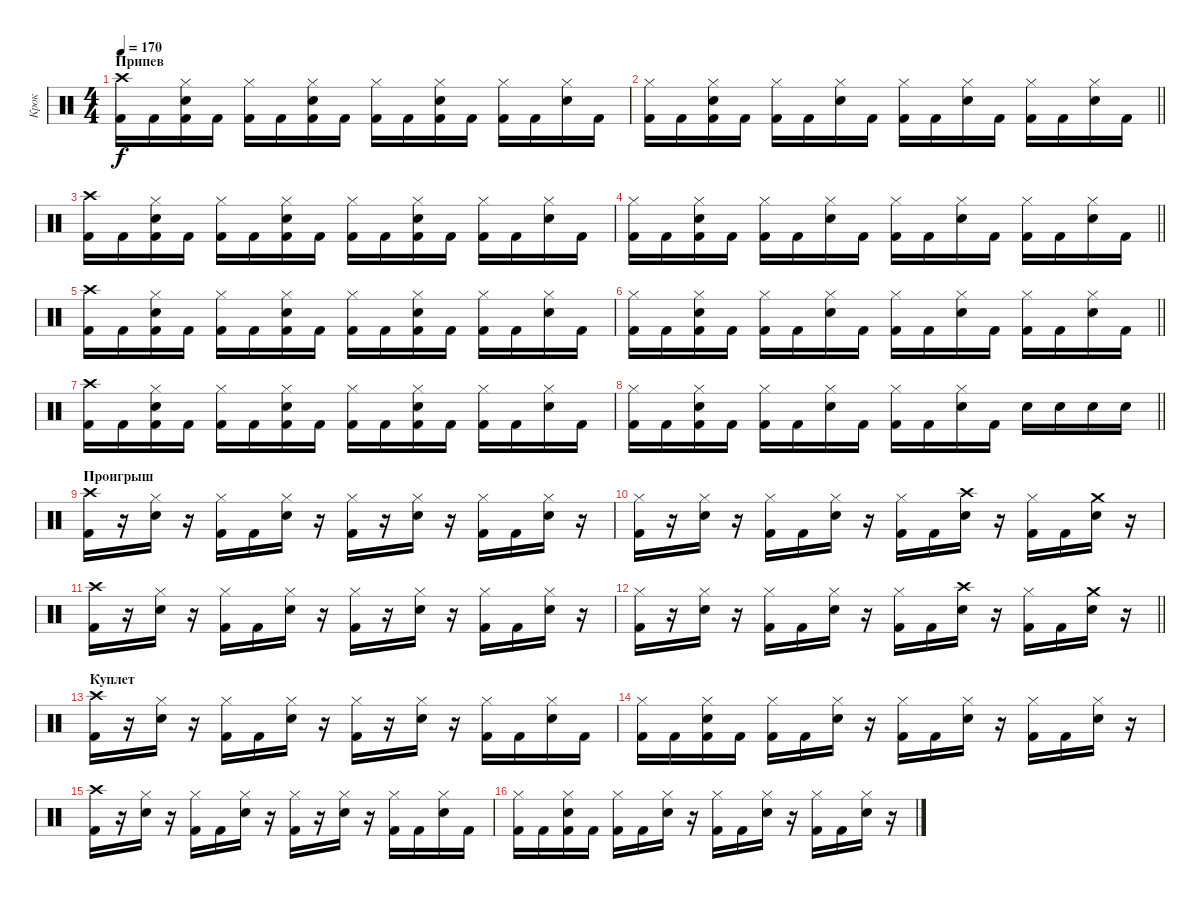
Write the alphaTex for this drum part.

\track ("Крок" "Крок") {instrument percussion}
\staff {score}
\articulation defaults
\ts (4 4)
\section ("" "Припев")
\tempo 170
\clef neutral
\ks aminor
("Kick (hit) 2" "Crash high (hit)").16{dy f} "Kick (hit) 2".16 ("Kick (hit) 2" "Electric Snare (hit)" "Hi-Hat (closed)").16 "Kick (hit) 2".16 ("Kick (hit) 2" "Hi-Hat (closed)").16 "Kick (hit) 2".16 ("Kick (hit) 2" "Electric Snare (hit)" "Hi-Hat (closed)").16 "Kick (hit) 2".16 ("Kick (hit) 2" "Hi-Hat (closed)").16 "Kick (hit) 2".16 ("Kick (hit) 2" "Electric Snare (hit)" "Hi-Hat (closed)").16 "Kick (hit) 2".16 ("Kick (hit) 2" "Hi-Hat (closed)").16 "Kick (hit) 2".16 ("Electric Snare (hit)" "Hi-Hat (closed)").16 "Kick (hit) 2".16 |
\barLineRight lightlight
("Kick (hit) 2" "Hi-Hat (closed)").16 "Kick (hit) 2".16 ("Kick (hit) 2" "Electric Snare (hit)" "Hi-Hat (closed)").16 "Kick (hit) 2".16 ("Kick (hit) 2" "Hi-Hat (closed)").16 "Kick (hit) 2".16 ("Electric Snare (hit)" "Hi-Hat (closed)").16 "Kick (hit) 2".16 ("Kick (hit) 2" "Hi-Hat (closed)").16 "Kick (hit) 2".16 ("Electric Snare (hit)" "Hi-Hat (closed)").16 "Kick (hit) 2".16 ("Kick (hit) 2" "Hi-Hat (closed)").16 "Kick (hit) 2".16 ("Electric Snare (hit)" "Hi-Hat (closed)").16 "Kick (hit) 2".16 |
("Kick (hit) 2" "Crash high (hit)").16 "Kick (hit) 2".16 ("Kick (hit) 2" "Electric Snare (hit)" "Hi-Hat (closed)").16 "Kick (hit) 2".16 ("Kick (hit) 2" "Hi-Hat (closed)").16 "Kick (hit) 2".16 ("Kick (hit) 2" "Electric Snare (hit)" "Hi-Hat (closed)").16 "Kick (hit) 2".16 ("Kick (hit) 2" "Hi-Hat (closed)").16 "Kick (hit) 2".16 ("Kick (hit) 2" "Electric Snare (hit)" "Hi-Hat (closed)").16 "Kick (hit) 2".16 ("Kick (hit) 2" "Hi-Hat (closed)").16 "Kick (hit) 2".16 ("Electric Snare (hit)" "Hi-Hat (closed)").16 "Kick (hit) 2".16 |
\barLineRight lightlight
("Kick (hit) 2" "Hi-Hat (closed)").16 "Kick (hit) 2".16 ("Kick (hit) 2" "Electric Snare (hit)" "Hi-Hat (closed)").16 "Kick (hit) 2".16 ("Kick (hit) 2" "Hi-Hat (closed)").16 "Kick (hit) 2".16 ("Electric Snare (hit)" "Hi-Hat (closed)").16 "Kick (hit) 2".16 ("Kick (hit) 2" "Hi-Hat (closed)").16 "Kick (hit) 2".16 ("Electric Snare (hit)" "Hi-Hat (closed)").16 "Kick (hit) 2".16 ("Kick (hit) 2" "Hi-Hat (closed)").16 "Kick (hit) 2".16 ("Electric Snare (hit)" "Hi-Hat (closed)").16 "Kick (hit) 2".16 |
("Kick (hit) 2" "Crash high (hit)").16 "Kick (hit) 2".16 ("Kick (hit) 2" "Electric Snare (hit)" "Hi-Hat (closed)").16 "Kick (hit) 2".16 ("Kick (hit) 2" "Hi-Hat (closed)").16 "Kick (hit) 2".16 ("Kick (hit) 2" "Electric Snare (hit)" "Hi-Hat (closed)").16 "Kick (hit) 2".16 ("Kick (hit) 2" "Hi-Hat (closed)").16 "Kick (hit) 2".16 ("Kick (hit) 2" "Electric Snare (hit)" "Hi-Hat (closed)").16 "Kick (hit) 2".16 ("Kick (hit) 2" "Hi-Hat (closed)").16 "Kick (hit) 2".16 ("Electric Snare (hit)" "Hi-Hat (closed)").16 "Kick (hit) 2".16 |
\barLineRight lightlight
("Kick (hit) 2" "Hi-Hat (closed)").16 "Kick (hit) 2".16 ("Kick (hit) 2" "Electric Snare (hit)" "Hi-Hat (closed)").16 "Kick (hit) 2".16 ("Kick (hit) 2" "Hi-Hat (closed)").16 "Kick (hit) 2".16 ("Electric Snare (hit)" "Hi-Hat (closed)").16 "Kick (hit) 2".16 ("Kick (hit) 2" "Hi-Hat (closed)").16 "Kick (hit) 2".16 ("Electric Snare (hit)" "Hi-Hat (closed)").16 "Kick (hit) 2".16 ("Kick (hit) 2" "Hi-Hat (closed)").16 "Kick (hit) 2".16 ("Electric Snare (hit)" "Hi-Hat (closed)").16 "Kick (hit) 2".16 |
("Kick (hit) 2" "Crash high (hit)").16 "Kick (hit) 2".16 ("Kick (hit) 2" "Electric Snare (hit)" "Hi-Hat (closed)").16 "Kick (hit) 2".16 ("Kick (hit) 2" "Hi-Hat (closed)").16 "Kick (hit) 2".16 ("Kick (hit) 2" "Electric Snare (hit)" "Hi-Hat (closed)").16 "Kick (hit) 2".16 ("Kick (hit) 2" "Hi-Hat (closed)").16 "Kick (hit) 2".16 ("Kick (hit) 2" "Electric Snare (hit)" "Hi-Hat (closed)").16 "Kick (hit) 2".16 ("Kick (hit) 2" "Hi-Hat (closed)").16 "Kick (hit) 2".16 ("Electric Snare (hit)" "Hi-Hat (closed)").16 "Kick (hit) 2".16 |
\barLineRight lightlight
("Kick (hit) 2" "Hi-Hat (closed)").16 "Kick (hit) 2".16 ("Kick (hit) 2" "Electric Snare (hit)" "Hi-Hat (closed)").16 "Kick (hit) 2".16 ("Kick (hit) 2" "Hi-Hat (closed)").16 "Kick (hit) 2".16 ("Electric Snare (hit)" "Hi-Hat (closed)").16 "Kick (hit) 2".16 ("Kick (hit) 2" "Hi-Hat (closed)").16 "Kick (hit) 2".16 ("Electric Snare (hit)" "Hi-Hat (closed)").16 "Kick (hit) 2".16 "Electric Snare (hit)".16 "Electric Snare (hit)".16 "Electric Snare (hit)".16 "Electric Snare (hit)".16 |
\section ("" "Проигрыш")
("Kick (hit) 2" "Crash high (hit)").16 r.16 ("Electric Snare (hit)" "Hi-Hat (closed)").16 r.16 ("Kick (hit) 2" "Hi-Hat (closed)").16 "Kick (hit) 2".16 ("Electric Snare (hit)" "Hi-Hat (closed)").16 r.16 ("Kick (hit) 2" "Hi-Hat (closed)").16 r.16 ("Electric Snare (hit)" "Hi-Hat (closed)").16 r.16 ("Kick (hit) 2" "Hi-Hat (closed)").16 "Kick (hit) 2".16 ("Electric Snare (hit)" "Hi-Hat (closed)").16 r.16 |
("Kick (hit) 2" "Hi-Hat (closed)").16 r.16 ("Electric Snare (hit)" "Hi-Hat (closed)").16 r.16 ("Kick (hit) 2" "Hi-Hat (closed)").16 "Kick (hit) 2".16 ("Electric Snare (hit)" "Hi-Hat (closed)").16 r.16 ("Kick (hit) 2" "Hi-Hat (closed)").16 "Kick (hit) 2".16 ("Electric Snare (hit)" "Crash high (hit)").16 r.16 ("Kick (hit) 2" "Hi-Hat (closed)").16 "Kick (hit) 2".16 ("Electric Snare (hit)" "Crash medium (hit)").16 r.16 |
("Kick (hit) 2" "Crash high (hit)").16 r.16 ("Electric Snare (hit)" "Hi-Hat (closed)").16 r.16 ("Kick (hit) 2" "Hi-Hat (closed)").16 "Kick (hit) 2".16 ("Electric Snare (hit)" "Hi-Hat (closed)").16 r.16 ("Kick (hit) 2" "Hi-Hat (closed)").16 r.16 ("Electric Snare (hit)" "Hi-Hat (closed)").16 r.16 ("Kick (hit) 2" "Hi-Hat (closed)").16 "Kick (hit) 2".16 ("Electric Snare (hit)" "Hi-Hat (closed)").16 r.16 |
\barLineRight lightlight
("Kick (hit) 2" "Hi-Hat (closed)").16 r.16 ("Electric Snare (hit)" "Hi-Hat (closed)").16 r.16 ("Kick (hit) 2" "Hi-Hat (closed)").16 "Kick (hit) 2".16 ("Electric Snare (hit)" "Hi-Hat (closed)").16 r.16 ("Kick (hit) 2" "Hi-Hat (closed)").16 "Kick (hit) 2".16 ("Electric Snare (hit)" "Crash high (hit)").16 r.16 ("Kick (hit) 2" "Hi-Hat (closed)").16 "Kick (hit) 2".16 ("Electric Snare (hit)" "Crash medium (hit)").16 r.16 |
\section ("" "Куплет")
("Kick (hit) 2" "Crash high (hit)").16 r.16 ("Electric Snare (hit)" "Hi-Hat (closed)").16 r.16 ("Kick (hit) 2" "Hi-Hat (closed)").16 "Kick (hit) 2".16 ("Electric Snare (hit)" "Hi-Hat (closed)").16 r.16 ("Kick (hit) 2" "Hi-Hat (closed)").16 r.16 ("Electric Snare (hit)" "Hi-Hat (closed)").16 r.16 ("Kick (hit) 2" "Hi-Hat (closed)").16 "Kick (hit) 2".16 ("Electric Snare (hit)" "Hi-Hat (closed)").16 "Kick (hit) 2".16 |
("Kick (hit) 2" "Hi-Hat (closed)").16 "Kick (hit) 2".16 ("Kick (hit) 2" "Electric Snare (hit)" "Hi-Hat (closed)").16 "Kick (hit) 2".16 ("Kick (hit) 2" "Hi-Hat (closed)").16 "Kick (hit) 2".16 ("Electric Snare (hit)" "Hi-Hat (closed)").16 r.16 ("Kick (hit) 2" "Hi-Hat (closed)").16 "Kick (hit) 2".16 ("Electric Snare (hit)" "Hi-Hat (closed)").16 r.16 ("Kick (hit) 2" "Hi-Hat (closed)").16 "Kick (hit) 2".16 ("Electric Snare (hit)" "Hi-Hat (closed)").16 r.16 |
("Kick (hit) 2" "Crash high (hit)").16 r.16 ("Electric Snare (hit)" "Hi-Hat (closed)").16 r.16 ("Kick (hit) 2" "Hi-Hat (closed)").16 "Kick (hit) 2".16 ("Electric Snare (hit)" "Hi-Hat (closed)").16 r.16 ("Kick (hit) 2" "Hi-Hat (closed)").16 r.16 ("Electric Snare (hit)" "Hi-Hat (closed)").16 r.16 ("Kick (hit) 2" "Hi-Hat (closed)").16 "Kick (hit) 2".16 ("Electric Snare (hit)" "Hi-Hat (closed)").16 "Kick (hit) 2".16 |
("Kick (hit) 2" "Hi-Hat (closed)").16 "Kick (hit) 2".16 ("Kick (hit) 2" "Electric Snare (hit)" "Hi-Hat (closed)").16 "Kick (hit) 2".16 ("Kick (hit) 2" "Hi-Hat (closed)").16 "Kick (hit) 2".16 ("Electric Snare (hit)" "Hi-Hat (closed)").16 r.16 ("Kick (hit) 2" "Hi-Hat (closed)").16 "Kick (hit) 2".16 ("Electric Snare (hit)" "Hi-Hat (closed)").16 r.16 ("Kick (hit) 2" "Hi-Hat (closed)").16 "Kick (hit) 2".16 ("Electric Snare (hit)" "Hi-Hat (closed)").16 r.16
